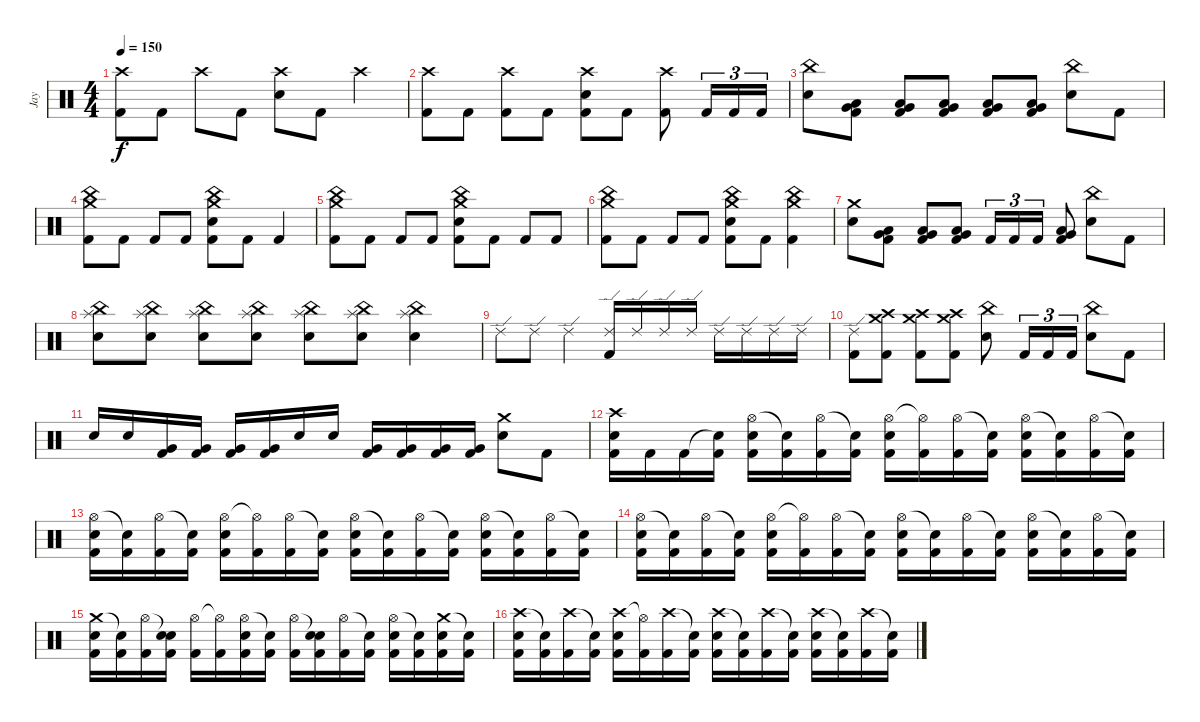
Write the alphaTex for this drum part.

\track ("Jay" "Jay") {instrument percussion}
\staff {score}
\articulation defaults
\ts (4 4)
\tempo 150
\clef neutral
\ks c
("Crash high (hit)" "Kick (hit) 2").8{dy f} "Kick (hit) 2".8 "Crash high (hit)".8 "Kick (hit) 2".8 ("Crash high (hit)" "Electric Snare (hit)").8 "Kick (hit) 2".8 "Crash high (hit)".4 |
("Crash high (hit)" "Kick (hit) 2").8 "Kick (hit) 2".8 ("Crash high (hit)" "Kick (hit) 2").8 "Kick (hit) 2".8 ("Crash high (hit)" "Electric Snare (hit)" "Kick (hit) 2").8 "Kick (hit) 2".8 ("Crash high (hit)" "Kick (hit) 2").8 "Kick (hit) 2".16{tu (3 2)} "Kick (hit) 2".16{tu (3 2)} "Kick (hit) 2".16{tu (3 2)} |
("China (hit)" "Electric Snare (hit)").8 ("Very Low Tom (hit)" "Low Floor Tom (hit)" "Kick (hit) 2").8 ("Very Low Tom (hit)" "Low Floor Tom (hit)" "Kick (hit) 2").8 ("Very Low Tom (hit)" "Low Floor Tom (hit)" "Kick (hit) 2").8 ("Very Low Tom (hit)" "Low Floor Tom (hit)" "Kick (hit) 2").8 ("Very Low Tom (hit)" "Low Floor Tom (hit)" "Kick (hit) 2").8 ("China (hit)" "Electric Snare (hit)").8 "Kick (hit) 2".8 |
("China (hit)" "Crash medium (hit)" "Kick (hit) 2").8 "Kick (hit) 2".8 "Kick (hit) 2".8 "Kick (hit) 2".8 ("China (hit)" "Crash medium (hit)" "Electric Snare (hit)" "Kick (hit) 2").8 "Kick (hit) 2".8 "Kick (hit) 2".4 |
("China (hit)" "Crash medium (hit)" "Kick (hit) 2").8 "Kick (hit) 2".8 "Kick (hit) 2".8 "Kick (hit) 2".8 ("China (hit)" "Crash medium (hit)" "Electric Snare (hit)" "Kick (hit) 2").8 "Kick (hit) 2".8 "Kick (hit) 2".8 "Kick (hit) 2".8 |
("China (hit)" "Crash medium (hit)" "Kick (hit) 2").8 "Kick (hit) 2".8 "Kick (hit) 2".8 "Kick (hit) 2".8 ("China (hit)" "Crash medium (hit)" "Electric Snare (hit)" "Kick (hit) 2").8 "Kick (hit) 2".8 ("China (hit)" "Crash medium (hit)" "Kick (hit) 2").4 |
("Crash medium (hit)" "Electric Snare (hit)").8 ("Very Low Tom (hit)" "Low Floor Tom (hit)" "Kick (hit) 2").8 ("Very Low Tom (hit)" "Low Floor Tom (hit)" "Kick (hit) 2").8 ("Very Low Tom (hit)" "Low Floor Tom (hit)" "Kick (hit) 2").8 "Kick (hit) 2".16{tu (3 2)} "Kick (hit) 2".16{tu (3 2)} "Kick (hit) 2".16{tu (3 2)} ("Very Low Tom (hit)" "Low Floor Tom (hit)" "Kick (hit) 2").8 ("China (hit)" "Electric Snare (hit)").8 "Kick (hit) 2".8 |
("China (hit)" "Splash (hit)" "Electric Snare (hit)").8 ("China (hit)" "Splash (hit)" "Electric Snare (hit)").8 ("China (hit)" "Splash (hit)" "Electric Snare (hit)").8 ("China (hit)" "Splash (hit)" "Electric Snare (hit)").8 ("China (hit)" "Splash (hit)" "Electric Snare (hit)").8 ("China (hit)" "Splash (hit)" "Electric Snare (hit)").8 ("China (hit)" "Splash (hit)" "Electric Snare (hit)").4 |
"Ride (edge) 2".8 "Ride (edge) 2".8 "Ride (edge) 2".4 ("Ride (edge) 2" "Kick (hit) 2").16 "Ride (edge) 2".16 "Ride (edge) 2".16 "Ride (edge) 2".16 "Ride (edge) 2".16 "Ride (edge) 2".16 "Ride (edge) 2".16 "Ride (edge) 2".16 |
("Ride (edge) 2" "Kick (hit) 2").8 ("Crash high (hit)" "Crash medium (hit)" "Kick (hit) 2").8 ("Crash medium (hit)" "Crash high (hit)" "Kick (hit) 2").8 ("Crash high (hit)" "Crash medium (hit)" "Kick (hit) 2").8 ("China (hit)" "Electric Snare (hit)").8 "Kick (hit) 2".16{tu (3 2)} "Kick (hit) 2".16{tu (3 2)} "Kick (hit) 2".16{tu (3 2)} ("China (hit)" "Electric Snare (hit)").8 "Kick (hit) 2".8 |
"Electric Snare (hit)".16 "Electric Snare (hit)".16 ("Very Low Tom (hit)" "Kick (hit) 2").16 ("Very Low Tom (hit)" "Kick (hit) 2").16 ("Very Low Tom (hit)" "Kick (hit) 2").16 ("Very Low Tom (hit)" "Kick (hit) 2").16 "Electric Snare (hit)".16 "Electric Snare (hit)".16 ("Very Low Tom (hit)" "Kick (hit) 2").16 ("Very Low Tom (hit)" "Kick (hit) 2").16 ("Very Low Tom (hit)" "Kick (hit) 2").16 ("Very Low Tom (hit)" "Kick (hit) 2").16 ("Crash medium (hit)" "Electric Snare (hit)").8 "Kick (hit) 2".8 |
("Crash high (hit)" "Electric Snare (hit)" "Kick (hit) 2").16 "Kick (hit) 2".16 "Kick (hit) 2".16 ("Snare (hit)"{t} "Kick (hit) 2").16 ("Hi-Hat (open)" "Electric Snare (hit)" "Kick (hit) 2").16 ("Snare (hit)"{t} "Kick (hit) 2").16 ("Hi-Hat (open)" "Kick (hit) 2").16 ("Snare (hit)"{t} "Kick (hit) 2").16 ("Hi-Hat (open)" "Electric Snare (hit)" "Kick (hit) 2").16 ("Hi-Hat (open)"{t} "Kick (hit) 2").16 ("Hi-Hat (open)" "Kick (hit) 2").16 ("Snare (hit)"{t} "Kick (hit) 2").16 ("Hi-Hat (open)" "Electric Snare (hit)" "Kick (hit) 2").16 ("Snare (hit)"{t} "Kick (hit) 2").16 ("Hi-Hat (open)" "Kick (hit) 2").16 ("Snare (hit)"{t} "Kick (hit) 2").16 |
("Hi-Hat (open)" "Electric Snare (hit)" "Kick (hit) 2").16 ("Snare (hit)"{t} "Kick (hit) 2").16 ("Hi-Hat (open)" "Kick (hit) 2").16 ("Snare (hit)"{t} "Kick (hit) 2").16 ("Hi-Hat (open)" "Electric Snare (hit)" "Kick (hit) 2").16 ("Hi-Hat (open)"{t} "Kick (hit) 2").16 ("Hi-Hat (open)" "Kick (hit) 2").16 ("Snare (hit)"{t} "Kick (hit) 2").16 ("Hi-Hat (open)" "Electric Snare (hit)" "Kick (hit) 2").16 ("Snare (hit)"{t} "Kick (hit) 2").16 ("Hi-Hat (open)" "Kick (hit) 2").16 ("Snare (hit)"{t} "Kick (hit) 2").16 ("Hi-Hat (open)" "Electric Snare (hit)" "Kick (hit) 2").16 ("Snare (hit)"{t} "Kick (hit) 2").16 ("Hi-Hat (open)" "Kick (hit) 2").16 ("Snare (hit)"{t} "Kick (hit) 2").16 |
("Hi-Hat (open)" "Electric Snare (hit)" "Kick (hit) 2").16 ("Snare (hit)"{t} "Kick (hit) 2").16 ("Hi-Hat (open)" "Kick (hit) 2").16 ("Snare (hit)"{t} "Kick (hit) 2").16 ("Hi-Hat (open)" "Electric Snare (hit)" "Kick (hit) 2").16 ("Hi-Hat (open)"{t} "Kick (hit) 2").16 ("Hi-Hat (open)" "Kick (hit) 2").16 ("Snare (hit)"{t} "Kick (hit) 2").16 ("Hi-Hat (open)" "Electric Snare (hit)" "Kick (hit) 2").16 ("Snare (hit)"{t} "Kick (hit) 2").16 ("Hi-Hat (open)" "Kick (hit) 2").16 ("Snare (hit)"{t} "Kick (hit) 2").16 ("Hi-Hat (open)" "Electric Snare (hit)" "Kick (hit) 2").16 ("Snare (hit)"{t} "Kick (hit) 2").16 ("Hi-Hat (open)" "Kick (hit) 2").16 ("Snare (hit)"{t} "Kick (hit) 2").16 |
("Crash medium (hit)" "Electric Snare (hit)" "Kick (hit) 2").16 ("Snare (hit)"{t} "Kick (hit) 2").16 ("Hi-Hat (open)" "Kick (hit) 2").16 ("Snare (hit)"{t} "Electric Snare (hit)" "Kick (hit) 2").16 ("Hi-Hat (open)" "Kick (hit) 2").16 ("Hi-Hat (open)"{t} "Kick (hit) 2").16 ("Hi-Hat (open)" "Electric Snare (hit)" "Kick (hit) 2").16 ("Snare (hit)"{t} "Kick (hit) 2").16 ("Hi-Hat (open)" "Kick (hit) 2").16 ("Snare (hit)"{t} "Electric Snare (hit)" "Kick (hit) 2").16 ("Hi-Hat (open)" "Kick (hit) 2").16 ("Snare (hit)"{t} "Kick (hit) 2").16 ("Hi-Hat (open)" "Electric Snare (hit)" "Kick (hit) 2").16 ("Snare (hit)"{t} "Kick (hit) 2").16 ("Crash medium (hit)" "Electric Snare (hit)" "Kick (hit) 2").16 ("Snare (hit)"{t} "Kick (hit) 2").16 |
("Crash high (hit)" "Electric Snare (hit)" "Kick (hit) 2").16 ("Snare (hit)"{t} "Kick (hit) 2").16 ("Crash high (hit)" "Kick (hit) 2").16 ("Snare (hit)"{t} "Kick (hit) 2").16 ("Crash high (hit)" "Electric Snare (hit)" "Kick (hit) 2").16 ("Hi-Hat (open)"{t} "Kick (hit) 2").16 ("Crash high (hit)" "Kick (hit) 2").16 ("Snare (hit)"{t} "Kick (hit) 2").16 ("Crash high (hit)" "Electric Snare (hit)" "Kick (hit) 2").16 ("Snare (hit)"{t} "Kick (hit) 2").16 ("Crash high (hit)" "Kick (hit) 2").16 ("Snare (hit)"{t} "Kick (hit) 2").16 ("Crash high (hit)" "Electric Snare (hit)" "Kick (hit) 2").16 ("Snare (hit)"{t} "Kick (hit) 2").16 ("Crash high (hit)" "Kick (hit) 2").16 ("Snare (hit)"{t} "Kick (hit) 2").16
